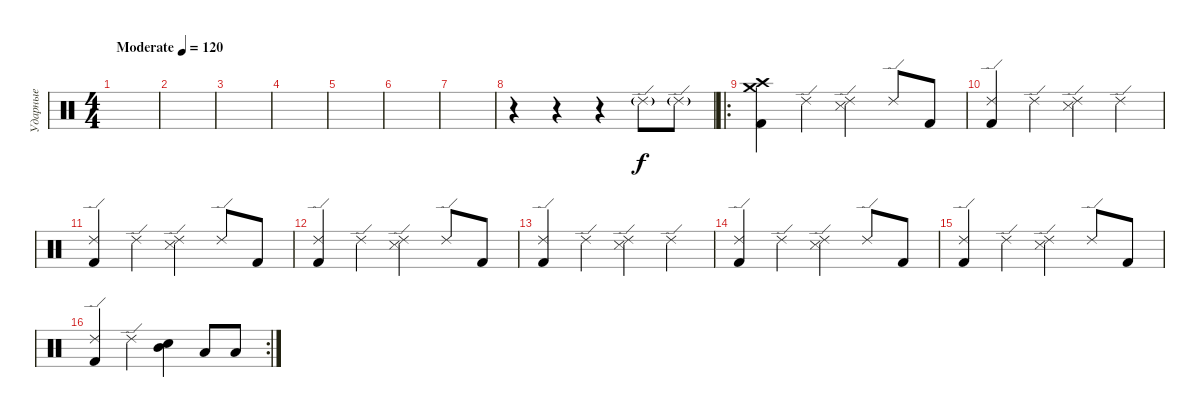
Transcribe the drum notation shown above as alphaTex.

\track ("Ударные" "Ударные") {instrument percussion}
\staff {score}
\articulation defaults
\ts (4 4)
\tempo (120 "Moderate")
\clef neutral
\ks c
|
|
|
|
|
|
|
r.4 r.4 r.4 "Ride (edge) 2"{g}.8 "Ride (edge) 2"{g}.8 |
\ro
("Kick (hit) 2" "Crash medium (hit)" "Crash high (hit)").4{dy f} "Ride (edge) 2".4 ("Snare (side stick) 3" "Ride (edge) 2").4 "Ride (edge) 2".8 "Kick (hit) 2".8 |
("Kick (hit) 2" "Ride (edge) 2").4 "Ride (edge) 2".4 ("Snare (side stick) 3" "Ride (edge) 2").4 "Ride (edge) 2".4 |
("Kick (hit) 2" "Ride (edge) 2").4 "Ride (edge) 2".4 ("Snare (side stick) 3" "Ride (edge) 2").4 "Ride (edge) 2".8 "Kick (hit) 2".8 |
("Kick (hit) 2" "Ride (edge) 2").4 "Ride (edge) 2".4 ("Snare (side stick) 3" "Ride (edge) 2").4 "Ride (edge) 2".8 "Kick (hit) 2".8 |
("Kick (hit) 2" "Ride (edge) 2").4 "Ride (edge) 2".4 ("Snare (side stick) 3" "Ride (edge) 2").4 "Ride (edge) 2".4 |
("Kick (hit) 2" "Ride (edge) 2").4 "Ride (edge) 2".4 ("Snare (side stick) 3" "Ride (edge) 2").4 "Ride (edge) 2".8 "Kick (hit) 2".8 |
("Kick (hit) 2" "Ride (edge) 2").4 "Ride (edge) 2".4 ("Snare (side stick) 3" "Ride (edge) 2").4 "Ride (edge) 2".8 "Kick (hit) 2".8 |
\rc 2
("Kick (hit) 2" "Ride (edge) 2").4 "Ride (edge) 2".4 ("Mid Tom (hit)" "Electric Snare (hit)").4 "Low Tom (hit)".8 "Low Tom (hit)".8
